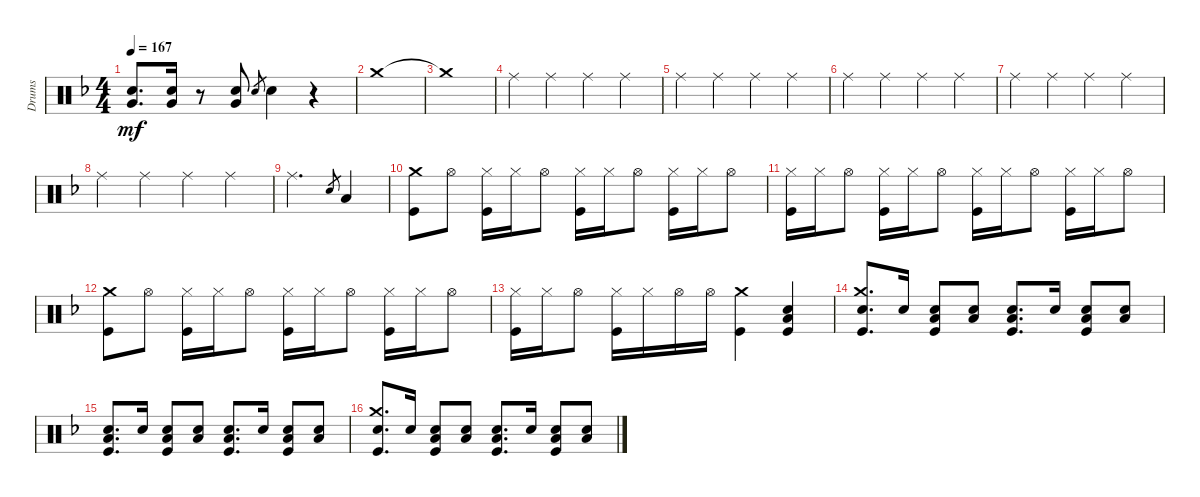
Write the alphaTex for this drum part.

\track ("Drums" "Drums") {instrument percussion}
\staff {score}
\articulation defaults
\ts (4 4)
\tempo 167
\clef neutral
\ks dminor
("Very Low Tom (hit)" "Snare (hit) 2").8{d dy mf} ("Snare (hit) 2" "Very Low Tom (hit)").16 r.8 ("Snare (hit) 2" "Very Low Tom (hit)").8 "Snare (hit)".8{gr} "Snare (hit) 2".4 r.4 |
"Crash medium (hit)".1 |
"Crash medium (hit)"{t}.1 |
"Ride (middle)".4 "Ride (middle)".4 "Ride (middle)".4 "Ride (middle)".4 |
"Ride (middle)".4 "Ride (middle)".4 "Ride (middle)".4 "Ride (middle)".4 |
"Ride (middle)".4 "Ride (middle)".4 "Ride (middle)".4 "Ride (middle)".4 |
"Ride (middle)".4 "Ride (middle)".4 "Ride (middle)".4 "Ride (middle)".4 |
"Ride (middle)".4 "Ride (middle)".4 "Ride (middle)".4 "Ride (middle)".4 |
"Ride (middle)".2{d} "Snare (hit)".8{gr} "Low Tom (hit)".4 |
("Crash medium (hit)" "Kick (hit)").8 "Hi-Hat (open)".8 ("Kick (hit)" "Hi-Hat (closed)").16 "Hi-Hat (closed)".16 "Hi-Hat (open)".8 ("Hi-Hat (closed)" "Kick (hit)").16 "Hi-Hat (closed)".16 "Hi-Hat (open)".8 ("Hi-Hat (closed)" "Kick (hit)").16 "Hi-Hat (closed)".16 "Hi-Hat (open)".8 |
("Hi-Hat (closed)" "Kick (hit)").16 "Hi-Hat (closed)".16 "Hi-Hat (open)".8 ("Hi-Hat (closed)" "Kick (hit)").16 "Hi-Hat (closed)".16 "Hi-Hat (open)".8 ("Hi-Hat (closed)" "Kick (hit)").16 "Hi-Hat (closed)".16 "Hi-Hat (open)".8 ("Hi-Hat (closed)" "Kick (hit)").16 "Hi-Hat (closed)".16 "Hi-Hat (open)".8 |
("Crash medium (hit)" "Kick (hit)").8 "Hi-Hat (open)".8 ("Kick (hit)" "Hi-Hat (closed)").16 "Hi-Hat (closed)".16 "Hi-Hat (open)".8 ("Hi-Hat (closed)" "Kick (hit)").16 "Hi-Hat (closed)".16 "Hi-Hat (open)".8 ("Hi-Hat (closed)" "Kick (hit)").16 "Hi-Hat (closed)".16 "Hi-Hat (open)".8 |
("Kick (hit)" "Hi-Hat (closed)").16 "Hi-Hat (closed)".16 "Hi-Hat (open)".8 ("Hi-Hat (closed)" "Kick (hit)").16 "Hi-Hat (closed)".16 "Hi-Hat (open)".16 "Hi-Hat (open)".16 ("Crash medium (hit)" "Kick (hit)").4 ("Kick (hit)" "Snare (hit) 2" "Low Tom (hit)").4 |
("Kick (hit)" "Snare (hit) 2" "Crash medium (hit)").8{d} "Snare (hit) 2".16 ("Low Tom (hit)" "Snare (hit) 2" "Kick (hit)").8 ("Snare (hit) 2" "Low Tom (hit)").8 ("Kick (hit)" "Snare (hit) 2" "Low Tom (hit)").8{d} "Snare (hit) 2".16 ("Low Tom (hit)" "Snare (hit) 2" "Kick (hit)").8 ("Snare (hit) 2" "Low Tom (hit)").8 |
("Snare (hit) 2" "Low Tom (hit)" "Kick (hit)").8{d} "Snare (hit) 2".16 ("Low Tom (hit)" "Snare (hit) 2" "Kick (hit)").8 ("Snare (hit) 2" "Low Tom (hit)").8 ("Kick (hit)" "Snare (hit) 2" "Low Tom (hit)").8{d} "Snare (hit) 2".16 ("Low Tom (hit)" "Snare (hit) 2" "Kick (hit)").8 ("Snare (hit) 2" "Low Tom (hit)").8 |
("Kick (hit)" "Snare (hit) 2" "Crash medium (hit)").8{d} "Snare (hit) 2".16 ("Low Tom (hit)" "Snare (hit) 2" "Kick (hit)").8 ("Snare (hit) 2" "Low Tom (hit)").8 ("Kick (hit)" "Snare (hit) 2" "Low Tom (hit)").8{d} "Snare (hit) 2".16 ("Low Tom (hit)" "Snare (hit) 2" "Kick (hit)").8 ("Snare (hit) 2" "Low Tom (hit)").8
